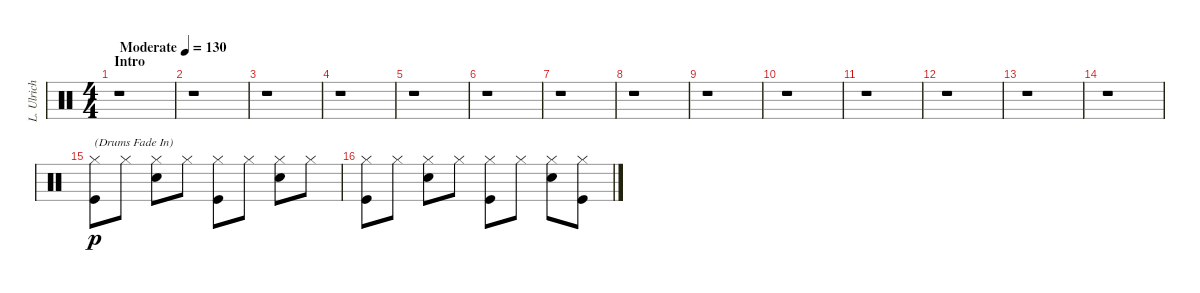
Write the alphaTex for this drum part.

\track ("L. Ulrich" "L. Ulrich") {instrument percussion}
\staff {score}
\articulation defaults
\ts (4 4)
\section ("" "Intro")
\tempo (130 "Moderate")
\clef neutral
\ks c
r.1{dy p} |
r.1 |
r.1 |
r.1 |
r.1 |
r.1 |
r.1 |
r.1 |
r.1 |
r.1 |
r.1 |
r.1 |
r.1 |
r.1 |
("Hi-Hat (closed)" "Kick (hit)").8{txt "(Drums Fade In)"} "Hi-Hat (closed)".8 ("Hi-Hat (closed)" "Snare (hit) 2").8 "Hi-Hat (closed)".8 ("Hi-Hat (closed)" "Kick (hit)").8 "Hi-Hat (closed)".8 ("Hi-Hat (closed)" "Snare (hit) 2").8 "Hi-Hat (closed)".8 |
("Hi-Hat (closed)" "Kick (hit)").8 "Hi-Hat (closed)".8 ("Hi-Hat (closed)" "Snare (hit) 2").8 "Hi-Hat (closed)".8 ("Hi-Hat (closed)" "Kick (hit)").8 "Hi-Hat (closed)".8 ("Hi-Hat (closed)" "Snare (hit) 2").8 ("Hi-Hat (closed)" "Kick (hit)").8
